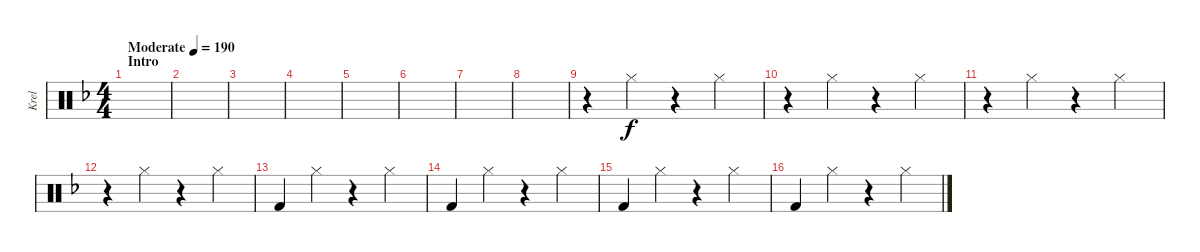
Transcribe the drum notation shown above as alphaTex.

\track ("Krel" "Krel") {instrument percussion}
\staff {score}
\articulation defaults
\ts (4 4)
\section ("" "Intro")
\tempo (190 "Moderate")
\clef neutral
\ks f
|
|
|
|
|
|
|
|
r.4 "Hi-Hat (closed)".4 r.4 "Hi-Hat (closed)".4 |
r.4 "Hi-Hat (closed)".4 r.4 "Hi-Hat (closed)".4 |
r.4 "Hi-Hat (closed)".4 r.4 "Hi-Hat (closed)".4 |
r.4 "Hi-Hat (closed)".4 r.4 "Hi-Hat (closed)".4 |
"Kick (hit) 2".4 "Hi-Hat (closed)".4 r.4 "Hi-Hat (closed)".4 |
"Kick (hit) 2".4 "Hi-Hat (closed)".4 r.4 "Hi-Hat (closed)".4 |
"Kick (hit) 2".4 "Hi-Hat (closed)".4 r.4 "Hi-Hat (closed)".4 |
"Kick (hit) 2".4 "Hi-Hat (closed)".4 r.4 "Hi-Hat (closed)".4
